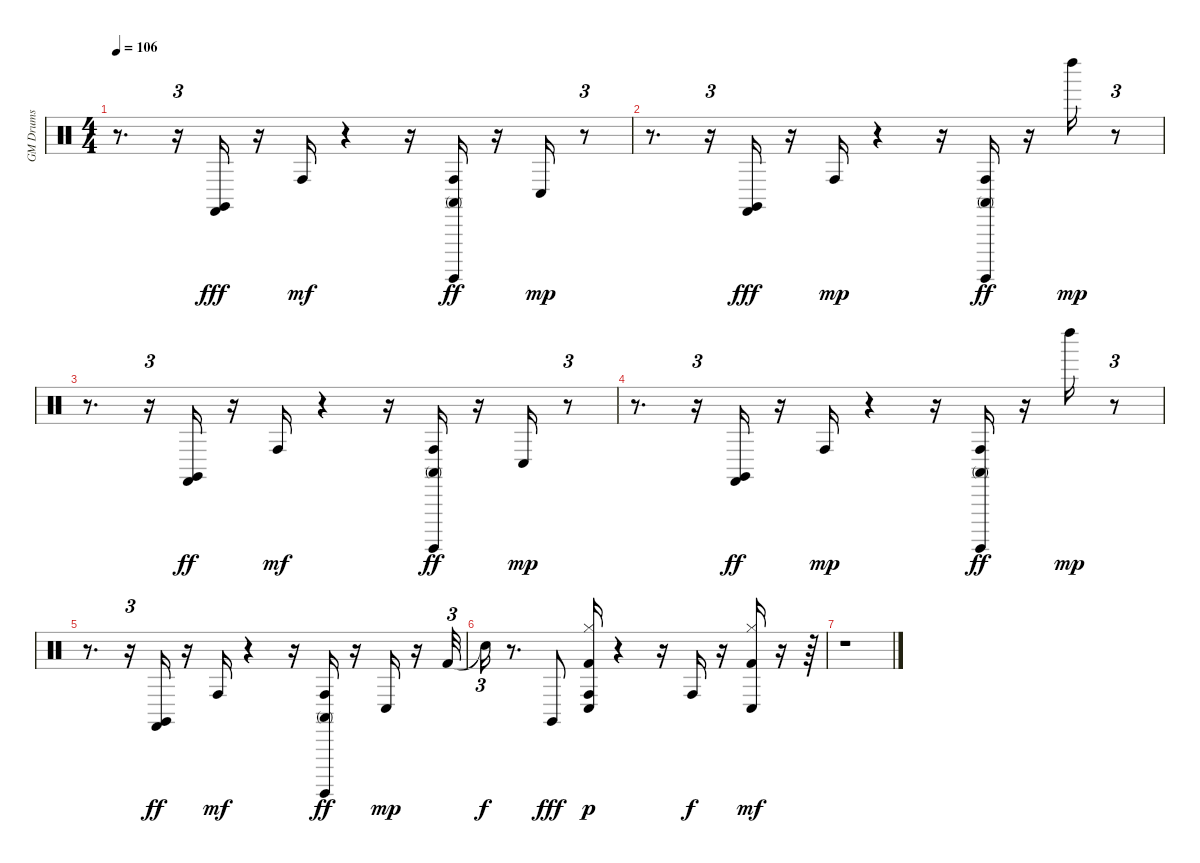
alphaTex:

\track ("GM Drums" "GM Drums") {instrument percussion}
\staff {score}
\articulation defaults
\ts (4 4)
\tempo 106
\clef neutral
\ks c
r.8{d dy mp} r.16{tu (3 2)} ("Claves (hit)" "Castanets (hit)").16{dy fff} r.16 "Conga high (hit)".16{dy mf} r.4 r.16 ("Conga high (mute)" "Conga high (hit)" "Surdo (hit)").16{dy ff} r.16 "Conga low (hit)".16{dy mp} r.8{tu (3 2)} |
r.8{d} r.16{tu (3 2)} ("Claves (hit)" "Castanets (hit)").16{dy fff} r.16 "Conga high (hit)".16{dy mp} r.4 r.16 ("Conga high (mute)" "Conga high (hit)" "Surdo (hit)").16{dy ff} r.16 "Left Maraca (hit)".16{dy mp} r.8{tu (3 2)} |
r.8{d} r.16{tu (3 2)} ("Claves (hit)" "Castanets (hit)").16{dy ff} r.16 "Conga high (hit)".16{dy mf} r.4 r.16 ("Conga high (mute)" "Conga high (hit)" "Surdo (hit)").16{dy ff} r.16 "Conga low (hit)".16{dy mp} r.8{tu (3 2)} |
r.8{d} r.16{tu (3 2)} ("Claves (hit)" "Castanets (hit)").16{dy ff} r.16 "Conga high (hit)".16{dy mp} r.4 r.16 ("Conga high (mute)" "Conga high (hit)" "Surdo (hit)").16{dy ff} r.16 "Left Maraca (hit)".16{dy mp} r.8{tu (3 2)} |
r.8{d} r.16{tu (3 2)} ("Claves (hit)" "Castanets (hit)").16{dy ff} r.16 "Conga high (hit)".16{dy mf} r.4 r.16 ("Conga high (mute)" "Conga high (hit)" "Surdo (hit)").16{dy ff} r.16 "Conga low (hit)".16{dy mp} r.16 "Kick (hit) 2".32{tu (3 2)} |
"Snare (hit)"{t}.16{tu (3 2) dy f} r.8{d} "Claves (hit)".8{dy fff} ("Kick (hit) 2" "Hi-Hat (closed)" "Conga high (hit)" "Conga low (hit)").16{dy p} r.4 r.16 "Conga high (hit)".16{dy f} r.16 ("Kick (hit) 2" "Hi-Hat (closed)" "Conga low (hit)").16{dy mf} r.16 r.64 |
r.1
